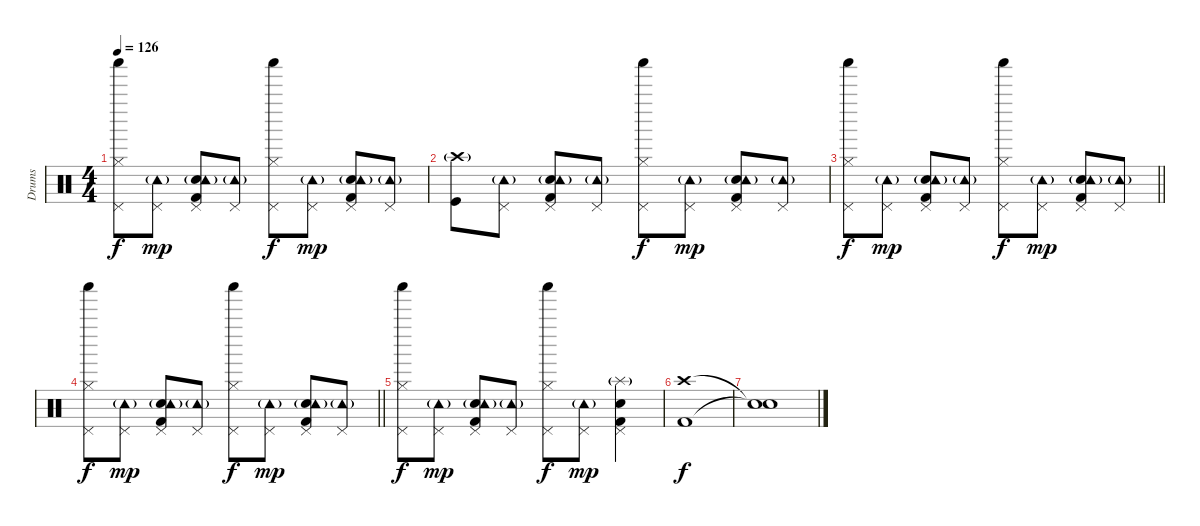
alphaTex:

\track ("Drums" "Drums") {instrument percussion}
\staff {score}
\articulation defaults
\ts (4 4)
\tempo 126
\clef neutral
\ks c
("Hi-Hat (closed)" "Pedal Hi-Hat (hit)" "Shaker (hit)").8{dy f} ("Pedal Hi-Hat (hit)" "Tambourine (hit)"{g}).8{dy mp} ("Pedal Hi-Hat (hit)" "Electric Snare (hit)" "Kick (hit) 2" "Tambourine (hit)"{g}).8 ("Pedal Hi-Hat (hit)" "Tambourine (hit)"{g}).8 ("Hi-Hat (closed)" "Pedal Hi-Hat (hit)" "Shaker (hit)").8{dy f} ("Pedal Hi-Hat (hit)" "Tambourine (hit)"{g}).8{dy mp} ("Pedal Hi-Hat (hit)" "Electric Snare (hit)" "Kick (hit) 2" "Tambourine (hit)"{g}).8 ("Pedal Hi-Hat (hit)" "Tambourine (hit)"{g}).8 |
("Crash high (hit)"{g} "Kick (hit)").8 ("Pedal Hi-Hat (hit)" "Tambourine (hit)"{g}).8 ("Pedal Hi-Hat (hit)" "Electric Snare (hit)" "Kick (hit) 2" "Tambourine (hit)"{g}).8 ("Pedal Hi-Hat (hit)" "Tambourine (hit)"{g}).8 ("Hi-Hat (closed)" "Pedal Hi-Hat (hit)" "Shaker (hit)").8{dy f} ("Pedal Hi-Hat (hit)" "Tambourine (hit)"{g}).8{dy mp} ("Pedal Hi-Hat (hit)" "Electric Snare (hit)" "Kick (hit) 2" "Tambourine (hit)"{g}).8 ("Pedal Hi-Hat (hit)" "Tambourine (hit)"{g}).8 |
\barLineRight lightlight
("Hi-Hat (closed)" "Pedal Hi-Hat (hit)" "Shaker (hit)").8{dy f} ("Pedal Hi-Hat (hit)" "Tambourine (hit)"{g}).8{dy mp} ("Pedal Hi-Hat (hit)" "Electric Snare (hit)" "Kick (hit) 2" "Tambourine (hit)"{g}).8 ("Pedal Hi-Hat (hit)" "Tambourine (hit)"{g}).8 ("Hi-Hat (closed)" "Pedal Hi-Hat (hit)" "Shaker (hit)").8{dy f} ("Pedal Hi-Hat (hit)" "Tambourine (hit)"{g}).8{dy mp} ("Pedal Hi-Hat (hit)" "Electric Snare (hit)" "Kick (hit) 2" "Tambourine (hit)"{g}).8 ("Pedal Hi-Hat (hit)" "Tambourine (hit)"{g}).8 |
\barLineRight lightlight
("Hi-Hat (closed)" "Pedal Hi-Hat (hit)" "Shaker (hit)").8{dy f} ("Pedal Hi-Hat (hit)" "Tambourine (hit)"{g}).8{dy mp} ("Pedal Hi-Hat (hit)" "Electric Snare (hit)" "Kick (hit) 2" "Tambourine (hit)"{g}).8 ("Pedal Hi-Hat (hit)" "Tambourine (hit)"{g}).8 ("Hi-Hat (closed)" "Pedal Hi-Hat (hit)" "Shaker (hit)").8{dy f} ("Pedal Hi-Hat (hit)" "Tambourine (hit)"{g}).8{dy mp} ("Pedal Hi-Hat (hit)" "Electric Snare (hit)" "Kick (hit) 2" "Tambourine (hit)"{g}).8 ("Pedal Hi-Hat (hit)" "Tambourine (hit)"{g}).8 |
("Hi-Hat (closed)" "Pedal Hi-Hat (hit)" "Shaker (hit)").8{dy f} ("Pedal Hi-Hat (hit)" "Tambourine (hit)"{g}).8{dy mp} ("Pedal Hi-Hat (hit)" "Electric Snare (hit)" "Kick (hit) 2" "Tambourine (hit)"{g}).8 ("Pedal Hi-Hat (hit)" "Tambourine (hit)"{g}).8 ("Hi-Hat (closed)" "Pedal Hi-Hat (hit)" "Shaker (hit)").8{dy f} ("Pedal Hi-Hat (hit)" "Tambourine (hit)"{g}).8{dy mp} ("Pedal Hi-Hat (hit)" "Electric Snare (hit)" "Kick (hit) 2" "Splash (hit)"{g}).4 |
("Crash high (hit)" "Kick (hit) 2").1{dy f} |
("Snare (hit)"{t} "Snare (hit)"{t}).1
